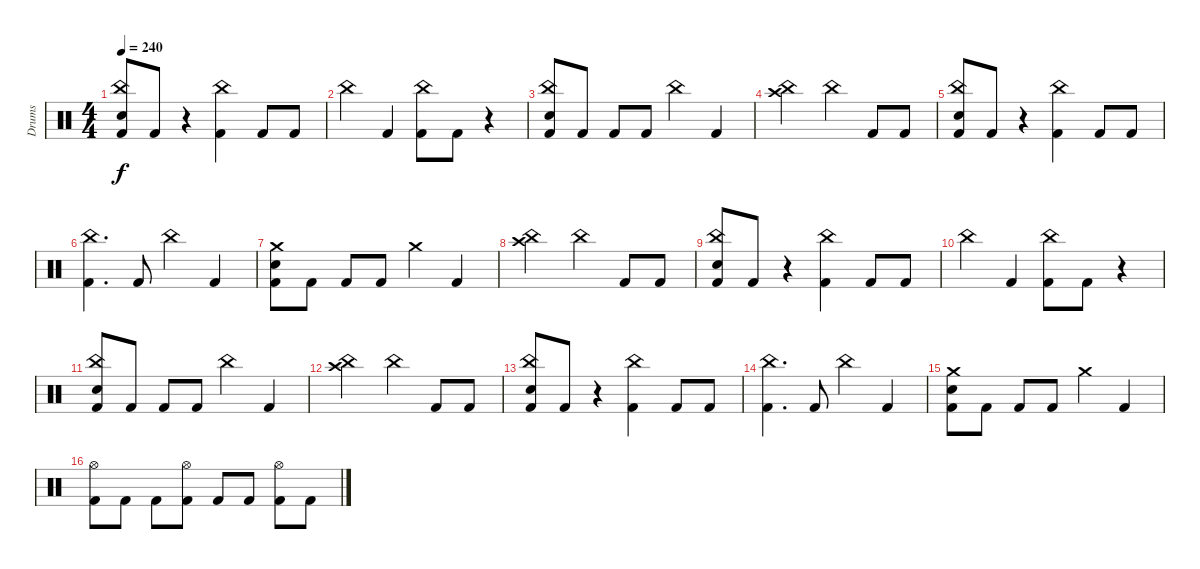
\track ("Drums" "Drums") {instrument percussion}
\staff {score}
\articulation defaults
\ts (4 4)
\tempo 240
\clef neutral
\ks c
("Snare (hit) 2" "China (hit)" "Kick (hit) 2").8{dy f} "Kick (hit) 2".8 r.4 ("China (hit)" "Kick (hit) 2").4 "Kick (hit) 2".8 "Kick (hit) 2".8 |
"China (hit)".4 "Kick (hit) 2".4 ("China (hit)" "Kick (hit) 2").8 "Kick (hit) 2".8 r.4 |
("Snare (hit) 2" "China (hit)" "Kick (hit) 2").8 "Kick (hit) 2".8 "Kick (hit) 2".8 "Kick (hit) 2".8 "China (hit)".4 "Kick (hit) 2".4 |
("China (hit)" "Crash high (hit)").2 "China (hit)".4 "Kick (hit) 2".8 "Kick (hit) 2".8 |
("Snare (hit) 2" "China (hit)" "Kick (hit) 2").8 "Kick (hit) 2".8 r.4 ("China (hit)" "Kick (hit) 2").4 "Kick (hit) 2".8 "Kick (hit) 2".8 |
("China (hit)" "Kick (hit) 2").4{d} "Kick (hit) 2".8 "China (hit)".4 "Kick (hit) 2".4 |
("Snare (hit) 2" "Crash medium (hit)" "Kick (hit) 2").8 "Kick (hit) 2".8 "Kick (hit) 2".8 "Kick (hit) 2".8 "Crash medium (hit)".4 "Kick (hit) 2".4 |
("China (hit)" "Crash high (hit)").2 "China (hit)".4 "Kick (hit) 2".8 "Kick (hit) 2".8 |
("Snare (hit) 2" "China (hit)" "Kick (hit) 2").8 "Kick (hit) 2".8 r.4 ("China (hit)" "Kick (hit) 2").4 "Kick (hit) 2".8 "Kick (hit) 2".8 |
"China (hit)".4 "Kick (hit) 2".4 ("China (hit)" "Kick (hit) 2").8 "Kick (hit) 2".8 r.4 |
("Snare (hit) 2" "China (hit)" "Kick (hit) 2").8 "Kick (hit) 2".8 "Kick (hit) 2".8 "Kick (hit) 2".8 "China (hit)".4 "Kick (hit) 2".4 |
("China (hit)" "Crash high (hit)").2 "China (hit)".4 "Kick (hit) 2".8 "Kick (hit) 2".8 |
("Snare (hit) 2" "China (hit)" "Kick (hit) 2").8 "Kick (hit) 2".8 r.4 ("China (hit)" "Kick (hit) 2").4 "Kick (hit) 2".8 "Kick (hit) 2".8 |
("China (hit)" "Kick (hit) 2").4{d} "Kick (hit) 2".8 "China (hit)".4 "Kick (hit) 2".4 |
("Snare (hit) 2" "Crash medium (hit)" "Kick (hit) 2").8 "Kick (hit) 2".8 "Kick (hit) 2".8 "Kick (hit) 2".8 "Crash medium (hit)".4 "Kick (hit) 2".4 |
("Hi-Hat (open)" "Kick (hit) 2").8 "Kick (hit) 2".8 "Kick (hit) 2".8 ("Hi-Hat (open)" "Kick (hit) 2").8 "Kick (hit) 2".8 "Kick (hit) 2".8 ("Hi-Hat (open)" "Kick (hit) 2").8 "Kick (hit) 2".8
